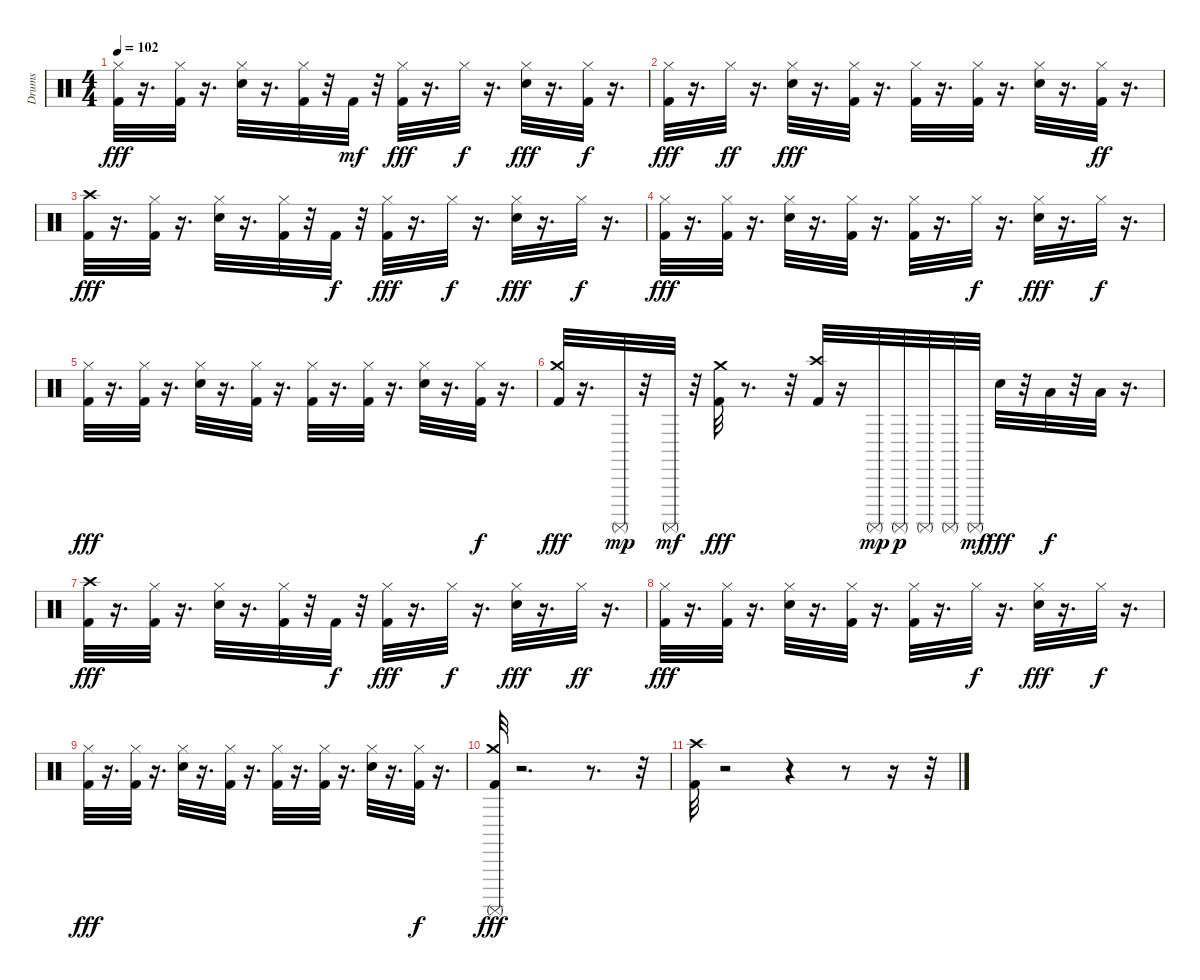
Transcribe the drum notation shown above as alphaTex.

\track ("Drums" "Drums") {instrument percussion}
\staff {score}
\articulation defaults
\ts (4 4)
\tempo 102
\clef neutral
\ks c
("Hi-Hat (closed)" "Kick (hit) 2").32{dy fff} r.16{d} ("Hi-Hat (closed)" "Kick (hit) 2").32 r.16{d} ("Hi-Hat (closed)" "Electric Snare (hit)").32 r.16{d} ("Hi-Hat (closed)" "Kick (hit) 2").32 r.32 "Kick (hit) 2".32{dy mf} r.32 ("Hi-Hat (closed)" "Kick (hit) 2").32{dy fff} r.16{d} "Hi-Hat (closed)".32{dy f} r.16{d} ("Hi-Hat (closed)" "Electric Snare (hit)").32{dy fff} r.16{d} ("Kick (hit) 2" "Hi-Hat (closed)").32{dy f} r.16{d} |
("Hi-Hat (closed)" "Kick (hit) 2").32{dy fff} r.16{d} "Hi-Hat (closed)".32{dy ff} r.16{d} ("Hi-Hat (closed)" "Electric Snare (hit)").32{dy fff} r.16{d} ("Hi-Hat (closed)" "Kick (hit) 2").32 r.16{d} ("Hi-Hat (closed)" "Kick (hit) 2").32 r.16{d} ("Kick (hit) 2" "Hi-Hat (closed)").32 r.16{d} ("Hi-Hat (closed)" "Electric Snare (hit)").32 r.16{d} ("Kick (hit) 2" "Hi-Hat (closed)").32{dy ff} r.16{d} |
("Crash high (hit)" "Kick (hit) 2").32{dy fff} r.16{d} ("Hi-Hat (closed)" "Kick (hit) 2").32 r.16{d} ("Hi-Hat (closed)" "Electric Snare (hit)").32 r.16{d} ("Hi-Hat (closed)" "Kick (hit) 2").32 r.32 "Kick (hit) 2".32{dy f} r.32 ("Hi-Hat (closed)" "Kick (hit) 2").32{dy fff} r.16{d} "Hi-Hat (closed)".32{dy f} r.16{d} ("Hi-Hat (closed)" "Electric Snare (hit)").32{dy fff} r.16{d} "Hi-Hat (closed)".32{dy f} r.16{d} |
("Hi-Hat (closed)" "Kick (hit) 2").32{dy fff} r.16{d} ("Hi-Hat (closed)" "Kick (hit) 2").32 r.16{d} ("Hi-Hat (closed)" "Electric Snare (hit)").32 r.16{d} ("Hi-Hat (closed)" "Kick (hit) 2").32 r.16{d} ("Hi-Hat (closed)" "Kick (hit) 2").32 r.16{d} "Hi-Hat (closed)".32{dy f} r.16{d} ("Hi-Hat (closed)" "Electric Snare (hit)").32{dy fff} r.16{d} "Hi-Hat (closed)".32{dy f} r.16{d} |
("Hi-Hat (closed)" "Kick (hit) 2").32{dy fff} r.16{d} ("Hi-Hat (closed)" "Kick (hit) 2").32 r.16{d} ("Hi-Hat (closed)" "Electric Snare (hit)").32 r.16{d} ("Hi-Hat (closed)" "Kick (hit) 2").32 r.16{d} ("Hi-Hat (closed)" "Kick (hit) 2").32 r.16{d} ("Kick (hit) 2" "Hi-Hat (closed)").32 r.16{d} ("Hi-Hat (closed)" "Electric Snare (hit)").32 r.16{d} ("Kick (hit) 2" "Hi-Hat (closed)").32{dy f} r.16{d} |
("Kick (hit) 2" "Crash medium (hit)").32{dy fff} r.16{d} "Surdo (mute)".32{dy mp} r.32 "Surdo (mute)".32{dy mf} r.32 ("Crash medium (hit)" "Kick (hit) 2").32{dy fff} r.8{d} r.32 ("Crash high (hit)" "Kick (hit) 2").32 r.16 "Surdo (mute)".32{dy mp} "Surdo (mute)".32{dy p} "Surdo (mute)".32 "Surdo (mute)".32 "Surdo (mute)".32{dy mf} "Electric Snare (hit)".32{dy fff} r.32 "Low Tom (hit)".32{dy f} r.32 "Low Floor Tom (hit)".32 r.16{d} |
("Crash high (hit)" "Kick (hit) 2").32{dy fff} r.16{d} ("Hi-Hat (closed)" "Kick (hit) 2").32 r.16{d} ("Hi-Hat (closed)" "Electric Snare (hit)").32 r.16{d} ("Hi-Hat (closed)" "Kick (hit) 2").32 r.32 "Kick (hit) 2".32{dy f} r.32 ("Hi-Hat (closed)" "Kick (hit) 2").32{dy fff} r.16{d} "Hi-Hat (closed)".32{dy f} r.16{d} ("Hi-Hat (closed)" "Electric Snare (hit)").32{dy fff} r.16{d} "Hi-Hat (closed)".32{dy ff} r.16{d} |
("Hi-Hat (closed)" "Kick (hit) 2").32{dy fff} r.16{d} ("Hi-Hat (closed)" "Kick (hit) 2").32 r.16{d} ("Hi-Hat (closed)" "Electric Snare (hit)").32 r.16{d} ("Hi-Hat (closed)" "Kick (hit) 2").32 r.16{d} ("Hi-Hat (closed)" "Kick (hit) 2").32 r.16{d} "Hi-Hat (closed)".32{dy f} r.16{d} ("Hi-Hat (closed)" "Electric Snare (hit)").32{dy fff} r.16{d} "Hi-Hat (closed)".32{dy f} r.16{d} |
("Hi-Hat (closed)" "Kick (hit) 2").32{dy fff} r.16{d} ("Hi-Hat (closed)" "Kick (hit) 2").32 r.16{d} ("Hi-Hat (closed)" "Electric Snare (hit)").32 r.16{d} ("Hi-Hat (closed)" "Kick (hit) 2").32 r.16{d} ("Hi-Hat (closed)" "Kick (hit) 2").32 r.16{d} ("Kick (hit) 2" "Hi-Hat (closed)").32 r.16{d} ("Hi-Hat (closed)" "Electric Snare (hit)").32 r.16{d} ("Kick (hit) 2" "Hi-Hat (closed)").32{dy f} r.16{d} |
("Kick (hit) 2" "Crash medium (hit)" "Surdo (mute)").32{dy fff} r.2{d} r.8{d} r.32 |
("Kick (hit) 2" "Crash high (hit)").32 r.2 r.4 r.8 r.16 r.32
